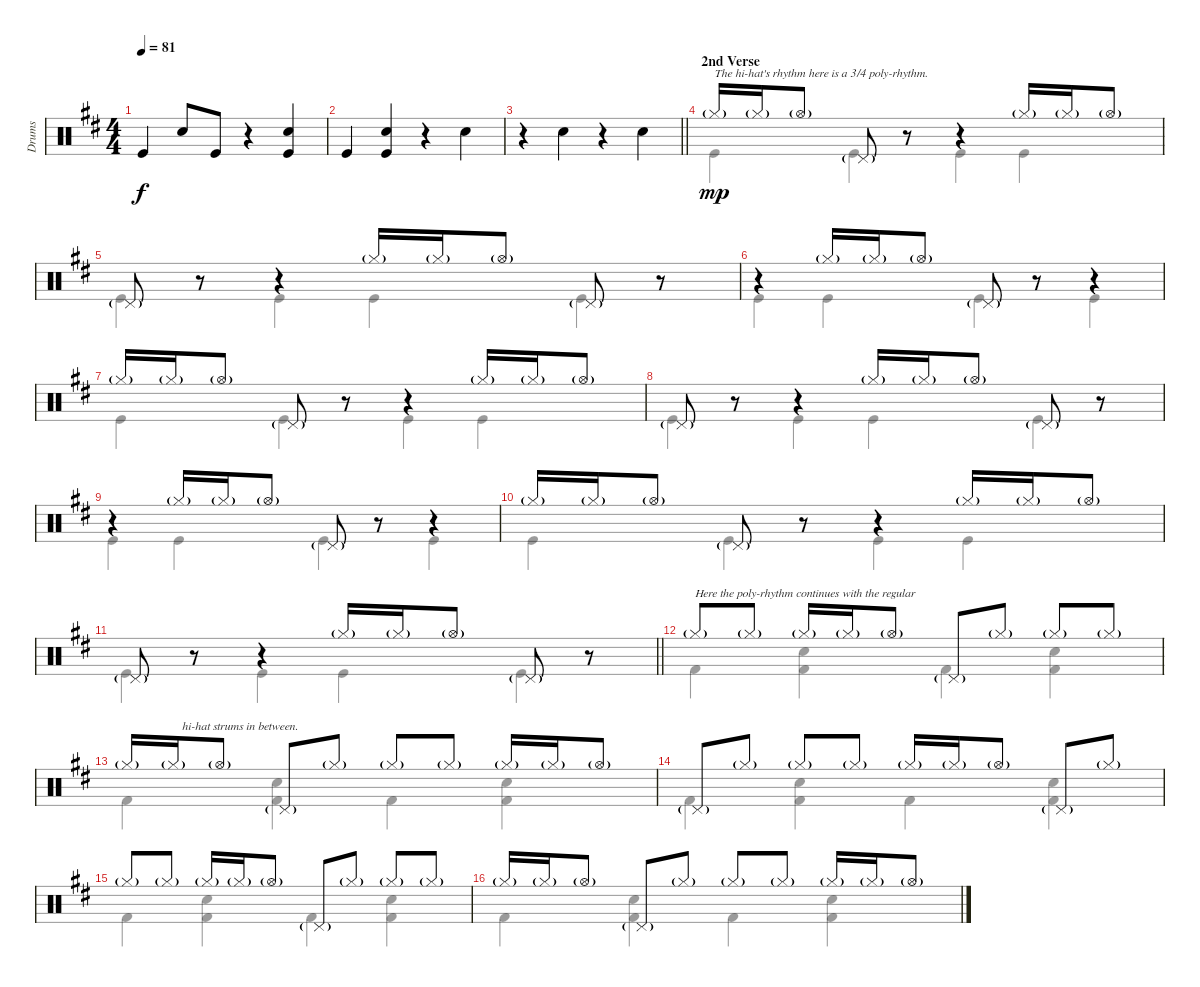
\track ("Drums" "Drums") {instrument percussion}
\staff {score}
\articulation defaults
\voice
\ts (4 4)
\tempo 81
\clef neutral
\ks d "Kick (hit)".4{dy f} "Snare (hit) 2".8 "Kick (hit)".8
r.4 ("Snare (hit) 2" "Kick (hit)").4 |
"Kick (hit)".4 ("Snare (hit) 2" "Kick (hit)").4 r.4 "Snare (hit) 2".4 |
\barLineRight lightlight
r.4 "Snare (hit) 2".4 r.4 "Snare (hit) 2".4 |
\section ("" "2nd Verse")
"Hi-Hat (closed)"{g}.16{txt "The hi-hat's rhythm here is a 3/4 poly-rhythm." dy mp} "Hi-Hat (closed)"{g}.16 "Hi-Hat (open)"{g}.8 "Pedal Hi-Hat (hit)"{g}.8 r.8 r.4 "Hi-Hat (closed)"{g}.16 "Hi-Hat (closed)"{g}.16 "Hi-Hat (open)"{g}.8 |
"Pedal Hi-Hat (hit)"{g}.8 r.8 r.4 "Hi-Hat (closed)"{g}.16 "Hi-Hat (closed)"{g}.16 "Hi-Hat (open)"{g}.8 "Pedal Hi-Hat (hit)"{g}.8 r.8 |
r.4 "Hi-Hat (closed)"{g}.16 "Hi-Hat (closed)"{g}.16 "Hi-Hat (open)"{g}.8 "Pedal Hi-Hat (hit)"{g}.8 r.8 r.4 |
"Hi-Hat (closed)"{g}.16 "Hi-Hat (closed)"{g}.16 "Hi-Hat (open)"{g}.8 "Pedal Hi-Hat (hit)"{g}.8 r.8 r.4 "Hi-Hat (closed)"{g}.16 "Hi-Hat (closed)"{g}.16 "Hi-Hat (open)"{g}.8 |
"Pedal Hi-Hat (hit)"{g}.8 r.8 r.4 "Hi-Hat (closed)"{g}.16 "Hi-Hat (closed)"{g}.16 "Hi-Hat (open)"{g}.8 "Pedal Hi-Hat (hit)"{g}.8 r.8 |
r.4 "Hi-Hat (closed)"{g}.16 "Hi-Hat (closed)"{g}.16 "Hi-Hat (open)"{g}.8 "Pedal Hi-Hat (hit)"{g}.8 r.8 r.4 |
"Hi-Hat (closed)"{g}.16 "Hi-Hat (closed)"{g}.16 "Hi-Hat (open)"{g}.8 "Pedal Hi-Hat (hit)"{g}.8 r.8 r.4 "Hi-Hat (closed)"{g}.16 "Hi-Hat (closed)"{g}.16 "Hi-Hat (open)"{g}.8 |
\barLineRight lightlight "Pedal Hi-Hat (hit)"{g}.8
r.8 r.4 "Hi-Hat (closed)"{g}.16 "Hi-Hat (closed)"{g}.16 "Hi-Hat (open)"{g}.8 "Pedal Hi-Hat (hit)"{g}.8 r.8 |
"Hi-Hat (closed)"{g}.8{txt "Here the poly-rhythm continues with the regular"} "Hi-Hat (closed)"{g}.8 "Hi-Hat (closed)"{g}.16 "Hi-Hat (closed)"{g}.16 "Hi-Hat (open)"{g}.8 "Pedal Hi-Hat (hit)"{g}.8 "Hi-Hat (closed)"{g}.8 "Hi-Hat (closed)"{g}.8 "Hi-Hat (closed)"{g}.8 |
"Hi-Hat (closed)"{g}.16 "Hi-Hat (closed)"{g}.16{txt "   hi-hat strums in between."} "Hi-Hat (open)"{g}.8 "Pedal Hi-Hat (hit)"{g}.8 "Hi-Hat (closed)"{g}.8 "Hi-Hat (closed)"{g}.8 "Hi-Hat (closed)"{g}.8 "Hi-Hat (closed)"{g}.16 "Hi-Hat (closed)"{g}.16 "Hi-Hat (open)"{g}.8 |
"Pedal Hi-Hat (hit)"{g}.8 "Hi-Hat (closed)"{g}.8 "Hi-Hat (closed)"{g}.8 "Hi-Hat (closed)"{g}.8 "Hi-Hat (closed)"{g}.16 "Hi-Hat (closed)"{g}.16 "Hi-Hat (open)"{g}.8 "Pedal Hi-Hat (hit)"{g}.8 "Hi-Hat (closed)"{g}.8 |
"Hi-Hat (closed)"{g}.8 "Hi-Hat (closed)"{g}.8 "Hi-Hat (closed)"{g}.16 "Hi-Hat (closed)"{g}.16 "Hi-Hat (open)"{g}.8 "Pedal Hi-Hat (hit)"{g}.8 "Hi-Hat (closed)"{g}.8 "Hi-Hat (closed)"{g}.8 "Hi-Hat (closed)"{g}.8 |
"Hi-Hat (closed)"{g}.16 "Hi-Hat (closed)"{g}.16 "Hi-Hat (open)"{g}.8 "Pedal Hi-Hat (hit)"{g}.8 "Hi-Hat (closed)"{g}.8 "Hi-Hat (closed)"{g}.8 "Hi-Hat (closed)"{g}.8 "Hi-Hat (closed)"{g}.16 "Hi-Hat (closed)"{g}.16 "Hi-Hat (open)"{g}.8
\voice
\clef neutral
\ottava regular
\simile none
\ks d
|
|
\barLineRight lightlight
|
"Kick (hit)".4 "Kick (hit)".4 "Kick (hit)".4 "Kick (hit)".4 |
"Kick (hit)".4 "Kick (hit)".4 "Kick (hit)".4 "Kick (hit)".4 |
"Kick (hit)".4 "Kick (hit)".4 "Kick (hit)".4 "Kick (hit)".4 |
"Kick (hit)".4 "Kick (hit)".4 "Kick (hit)".4 "Kick (hit)".4 |
"Kick (hit)".4 "Kick (hit)".4 "Kick (hit)".4 "Kick (hit)".4 |
"Kick (hit)".4 "Kick (hit)".4 "Kick (hit)".4 "Kick (hit)".4 |
"Kick (hit)".4 "Kick (hit)".4 "Kick (hit)".4 "Kick (hit)".4 |
\barLineRight lightlight "Kick (hit)".4 "Kick (hit)".4 "Kick (hit)".4 "Kick (hit)".4
|
"Kick (hit) 2".4 ("Snare (hit) 2" "Kick (hit) 2").4 "Kick (hit) 2".4 ("Snare (hit) 2" "Kick (hit) 2").4 |
"Kick (hit) 2".4 ("Snare (hit) 2" "Kick (hit) 2").4 "Kick (hit) 2".4 ("Snare (hit) 2" "Kick (hit) 2").4 |
"Kick (hit) 2".4 ("Snare (hit) 2" "Kick (hit) 2").4 "Kick (hit) 2".4 ("Snare (hit) 2" "Kick (hit) 2").4 |
"Kick (hit) 2".4 ("Snare (hit) 2" "Kick (hit) 2").4 "Kick (hit) 2".4 ("Snare (hit) 2" "Kick (hit) 2").4 |
"Kick (hit) 2".4 ("Snare (hit) 2" "Kick (hit) 2").4 "Kick (hit) 2".4 ("Snare (hit) 2" "Kick (hit) 2").4
